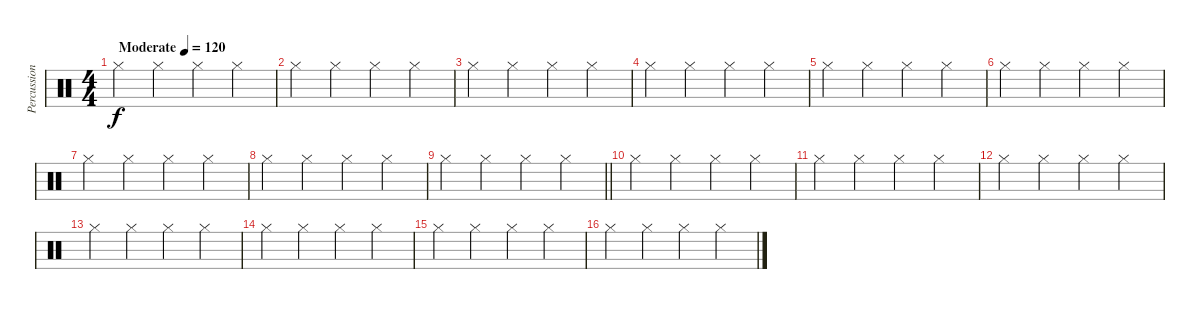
\track ("Percussion" "Percussion") {instrument percussion}
\staff {score}
\articulation defaults
\ts (4 4)
\tempo (120 "Moderate")
\clef neutral
\ks c "Hi-Hat (closed)".4{dy f} "Hi-Hat (closed)".4 "Hi-Hat (closed)".4 "Hi-Hat (closed)".4
|
"Hi-Hat (closed)".4 "Hi-Hat (closed)".4 "Hi-Hat (closed)".4 "Hi-Hat (closed)".4 |
"Hi-Hat (closed)".4 "Hi-Hat (closed)".4 "Hi-Hat (closed)".4 "Hi-Hat (closed)".4 |
"Hi-Hat (closed)".4 "Hi-Hat (closed)".4 "Hi-Hat (closed)".4 "Hi-Hat (closed)".4 |
"Hi-Hat (closed)".4 "Hi-Hat (closed)".4 "Hi-Hat (closed)".4 "Hi-Hat (closed)".4 |
"Hi-Hat (closed)".4 "Hi-Hat (closed)".4 "Hi-Hat (closed)".4 "Hi-Hat (closed)".4 |
"Hi-Hat (closed)".4 "Hi-Hat (closed)".4 "Hi-Hat (closed)".4 "Hi-Hat (closed)".4 |
"Hi-Hat (closed)".4 "Hi-Hat (closed)".4 "Hi-Hat (closed)".4 "Hi-Hat (closed)".4 |
\barLineRight lightlight "Hi-Hat (closed)".4 "Hi-Hat (closed)".4 "Hi-Hat (closed)".4 "Hi-Hat (closed)".4
|
"Hi-Hat (closed)".4 "Hi-Hat (closed)".4 "Hi-Hat (closed)".4 "Hi-Hat (closed)".4 |
"Hi-Hat (closed)".4 "Hi-Hat (closed)".4 "Hi-Hat (closed)".4 "Hi-Hat (closed)".4 |
"Hi-Hat (closed)".4 "Hi-Hat (closed)".4 "Hi-Hat (closed)".4 "Hi-Hat (closed)".4 |
"Hi-Hat (closed)".4 "Hi-Hat (closed)".4 "Hi-Hat (closed)".4 "Hi-Hat (closed)".4 |
"Hi-Hat (closed)".4 "Hi-Hat (closed)".4 "Hi-Hat (closed)".4 "Hi-Hat (closed)".4 |
"Hi-Hat (closed)".4 "Hi-Hat (closed)".4 "Hi-Hat (closed)".4 "Hi-Hat (closed)".4 |
"Hi-Hat (closed)".4 "Hi-Hat (closed)".4 "Hi-Hat (closed)".4 "Hi-Hat (closed)".4
